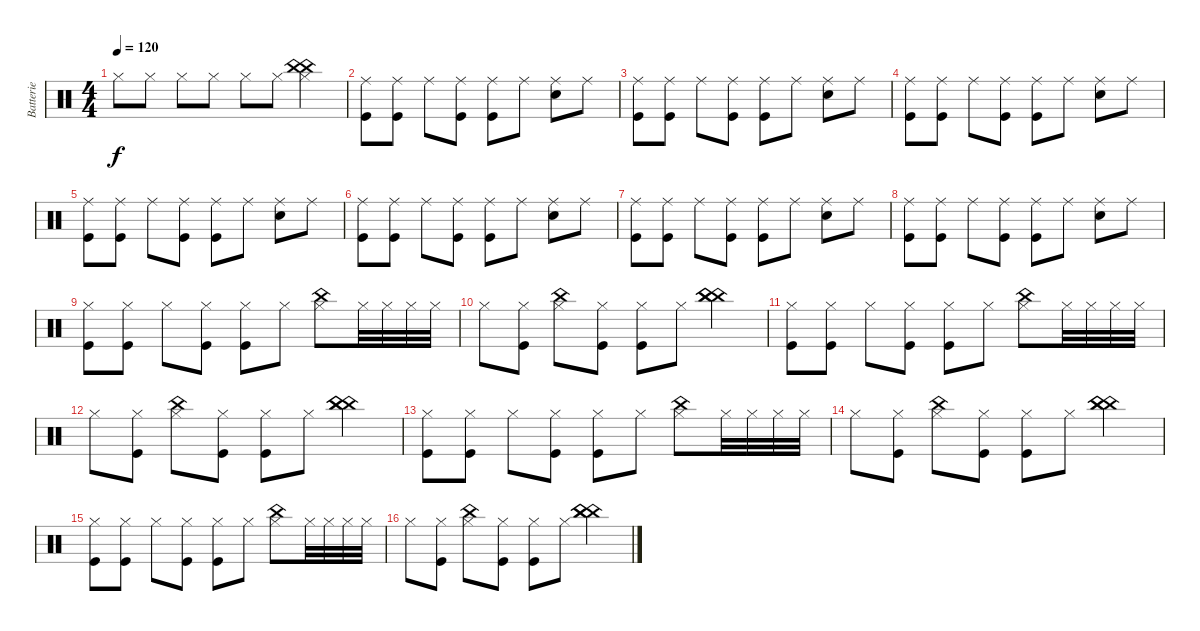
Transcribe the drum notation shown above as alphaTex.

\track ("Batterie" "Batterie") {instrument percussion}
\staff {score}
\articulation defaults
\ts (4 4)
\tempo 120
\clef neutral
\ks c "Hi-Hat (closed)".8{dy f} "Hi-Hat (closed)".8 "Hi-Hat (closed)".8 "Hi-Hat (closed)".8 "Hi-Hat (closed)".8 "Hi-Hat (closed)".8
("China (hit)" "Hi-Hat (closed)" "China (hit)").4 |
("Ride (middle)" "Kick (hit)").8 ("Ride (middle)" "Kick (hit)").8 "Ride (middle)".8 ("Ride (middle)" "Kick (hit)").8 ("Ride (middle)" "Kick (hit)").8 "Ride (middle)".8 ("Ride (middle)" "Snare (hit) 2").8 "Ride (middle)".8 |
("Ride (middle)" "Kick (hit)").8 ("Ride (middle)" "Kick (hit)").8 "Ride (middle)".8 ("Ride (middle)" "Kick (hit)").8 ("Ride (middle)" "Kick (hit)").8 "Ride (middle)".8 ("Ride (middle)" "Snare (hit) 2").8 "Ride (middle)".8 |
("Ride (middle)" "Kick (hit)").8 ("Ride (middle)" "Kick (hit)").8 "Ride (middle)".8 ("Ride (middle)" "Kick (hit)").8 ("Ride (middle)" "Kick (hit)").8 "Ride (middle)".8 ("Ride (middle)" "Snare (hit) 2").8 "Ride (middle)".8 |
("Ride (middle)" "Kick (hit)").8 ("Ride (middle)" "Kick (hit)").8 "Ride (middle)".8 ("Ride (middle)" "Kick (hit)").8 ("Ride (middle)" "Kick (hit)").8 "Ride (middle)".8 ("Ride (middle)" "Snare (hit) 2").8 "Ride (middle)".8 |
("Ride (middle)" "Kick (hit)").8 ("Ride (middle)" "Kick (hit)").8 "Ride (middle)".8 ("Ride (middle)" "Kick (hit)").8 ("Ride (middle)" "Kick (hit)").8 "Ride (middle)".8 ("Ride (middle)" "Snare (hit) 2").8 "Ride (middle)".8 |
("Ride (middle)" "Kick (hit)").8 ("Ride (middle)" "Kick (hit)").8 "Ride (middle)".8 ("Ride (middle)" "Kick (hit)").8 ("Ride (middle)" "Kick (hit)").8 "Ride (middle)".8 ("Ride (middle)" "Snare (hit) 2").8 "Ride (middle)".8 |
("Ride (middle)" "Kick (hit)").8 ("Ride (middle)" "Kick (hit)").8 "Ride (middle)".8 ("Ride (middle)" "Kick (hit)").8 ("Ride (middle)" "Kick (hit)").8 "Ride (middle)".8 ("Ride (middle)" "Snare (hit) 2").8 "Ride (middle)".8 |
("Hi-Hat (closed)" "Kick (hit)").8 ("Hi-Hat (closed)" "Kick (hit)").8 "Hi-Hat (closed)".8 ("Hi-Hat (closed)" "Kick (hit)").8 ("Hi-Hat (closed)" "Kick (hit)").8 "Hi-Hat (closed)".8 ("Hi-Hat (closed)" "China (hit)").8 "Hi-Hat (closed)".32 "Hi-Hat (closed)".32 "Hi-Hat (closed)".32 "Hi-Hat (closed)".32 |
"Hi-Hat (closed)".8 ("Hi-Hat (closed)" "Kick (hit)").8 ("Hi-Hat (closed)" "China (hit)").8 ("Hi-Hat (closed)" "Kick (hit)").8 ("Hi-Hat (closed)" "Kick (hit)").8 "Hi-Hat (closed)".8 ("China (hit)" "China (hit)" "China (hit)").4 |
("Hi-Hat (closed)" "Kick (hit)").8 ("Hi-Hat (closed)" "Kick (hit)").8 "Hi-Hat (closed)".8 ("Hi-Hat (closed)" "Kick (hit)").8 ("Hi-Hat (closed)" "Kick (hit)").8 "Hi-Hat (closed)".8 ("Hi-Hat (closed)" "China (hit)").8 "Hi-Hat (closed)".32 "Hi-Hat (closed)".32 "Hi-Hat (closed)".32 "Hi-Hat (closed)".32 |
"Hi-Hat (closed)".8 ("Hi-Hat (closed)" "Kick (hit)").8 ("Hi-Hat (closed)" "China (hit)").8 ("Hi-Hat (closed)" "Kick (hit)").8 ("Hi-Hat (closed)" "Kick (hit)").8 "Hi-Hat (closed)".8 ("China (hit)" "China (hit)" "China (hit)").4 |
("Hi-Hat (closed)" "Kick (hit)").8 ("Hi-Hat (closed)" "Kick (hit)").8 "Hi-Hat (closed)".8 ("Hi-Hat (closed)" "Kick (hit)").8 ("Hi-Hat (closed)" "Kick (hit)").8 "Hi-Hat (closed)".8 ("Hi-Hat (closed)" "China (hit)").8 "Hi-Hat (closed)".32 "Hi-Hat (closed)".32 "Hi-Hat (closed)".32 "Hi-Hat (closed)".32 |
"Hi-Hat (closed)".8 ("Hi-Hat (closed)" "Kick (hit)").8 ("Hi-Hat (closed)" "China (hit)").8 ("Hi-Hat (closed)" "Kick (hit)").8 ("Hi-Hat (closed)" "Kick (hit)").8 "Hi-Hat (closed)".8 ("China (hit)" "China (hit)" "China (hit)").4 |
("Hi-Hat (closed)" "Kick (hit)").8 ("Hi-Hat (closed)" "Kick (hit)").8 "Hi-Hat (closed)".8 ("Hi-Hat (closed)" "Kick (hit)").8 ("Hi-Hat (closed)" "Kick (hit)").8 "Hi-Hat (closed)".8 ("Hi-Hat (closed)" "China (hit)").8 "Hi-Hat (closed)".32 "Hi-Hat (closed)".32 "Hi-Hat (closed)".32 "Hi-Hat (closed)".32 |
"Hi-Hat (closed)".8 ("Hi-Hat (closed)" "Kick (hit)").8 ("Hi-Hat (closed)" "China (hit)").8 ("Hi-Hat (closed)" "Kick (hit)").8 ("Hi-Hat (closed)" "Kick (hit)").8 "Hi-Hat (closed)".8 ("China (hit)" "China (hit)" "China (hit)").4
